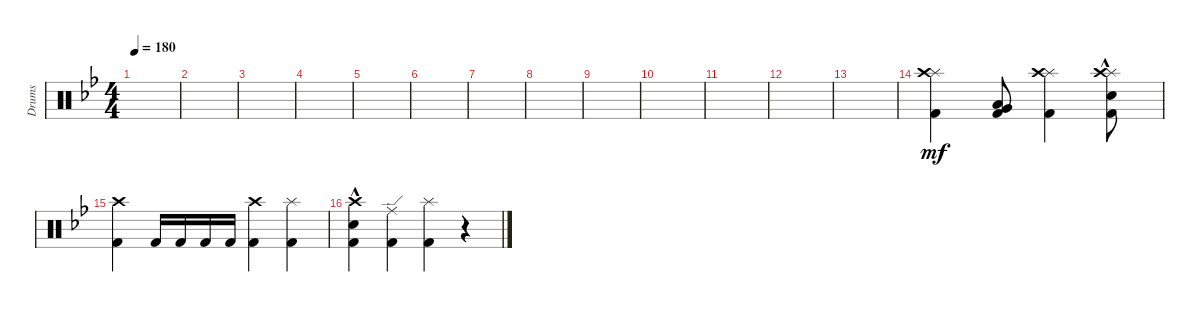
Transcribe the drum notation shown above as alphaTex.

\defaultSystemsLayout 4
\bracketExtendMode groupsimilarinstruments
\otherSystemsTrackNameOrientation horizontal
\track ("Drumkit" "Drums") {instrument percussion}
\staff {score}
\articulation defaults
\ts (4 4)
\tempo 180
\clef neutral
\scale
0.333333
\ks bb
|
\scale
0.333333 |
\scale
0.333333 |
\scale
0.333333 |
\scale
0.333333 |
\scale
0.333333 |
\scale
0.333333 |
\scale
0.333333 |
\scale
0.333333 |
\scale
0.333333 |
\scale
0.333333 |
\scale
0.333333 |
\scale
0.333333 |
\scale
0.333333 ("Splash (hit)"{acc forcenatural} "Crash high (hit)"{acc forcenatural} "Kick (hit) 2"{acc forcenatural}).4{dy mf} ("Kick (hit) 2"{acc forcenatural} "Very Low Tom (hit)"{acc forcenatural} "Low Tom (hit)"{acc forcenatural}).8 ("Splash (hit)"{acc forcenatural} "Crash high (hit)"{acc forcenatural} "Kick (hit) 2"{acc forcenatural}).4 ("Kick (hit) 2"{acc forcenatural} "Splash (hit)"{acc forcenatural} "Crash high (hit)"{acc forcenatural} "Snare (hit) 2"{hac acc forcenatural}).8 |
\scale
0.333333 ("Crash high (hit)"{acc forcenatural} "Kick (hit) 2"{acc forcenatural}).4 "Kick (hit) 2"{acc forcenatural}.16 "Kick (hit) 2"{acc forcenatural}.16 "Kick (hit) 2"{acc forcenatural}.16 "Kick (hit) 2"{acc forcenatural}.16 ("Crash high (hit)"{acc forcenatural} "Kick (hit) 2"{acc forcenatural}).4 ("Splash (hit)"{acc forcenatural} "Kick (hit) 2"{acc forcenatural}).4 |
\scale
0.333333 ("Crash high (hit)"{acc forcenatural} "Kick (hit) 2"{acc forcenatural} "Snare (hit) 2"{hac acc forcenatural}).4 ("Ride (edge)"{acc forcenatural} "Kick (hit) 2"{acc forcenatural}).4 ("Kick (hit) 2"{acc forcenatural} "Splash (hit)"{acc forcenatural}).4 r.4
